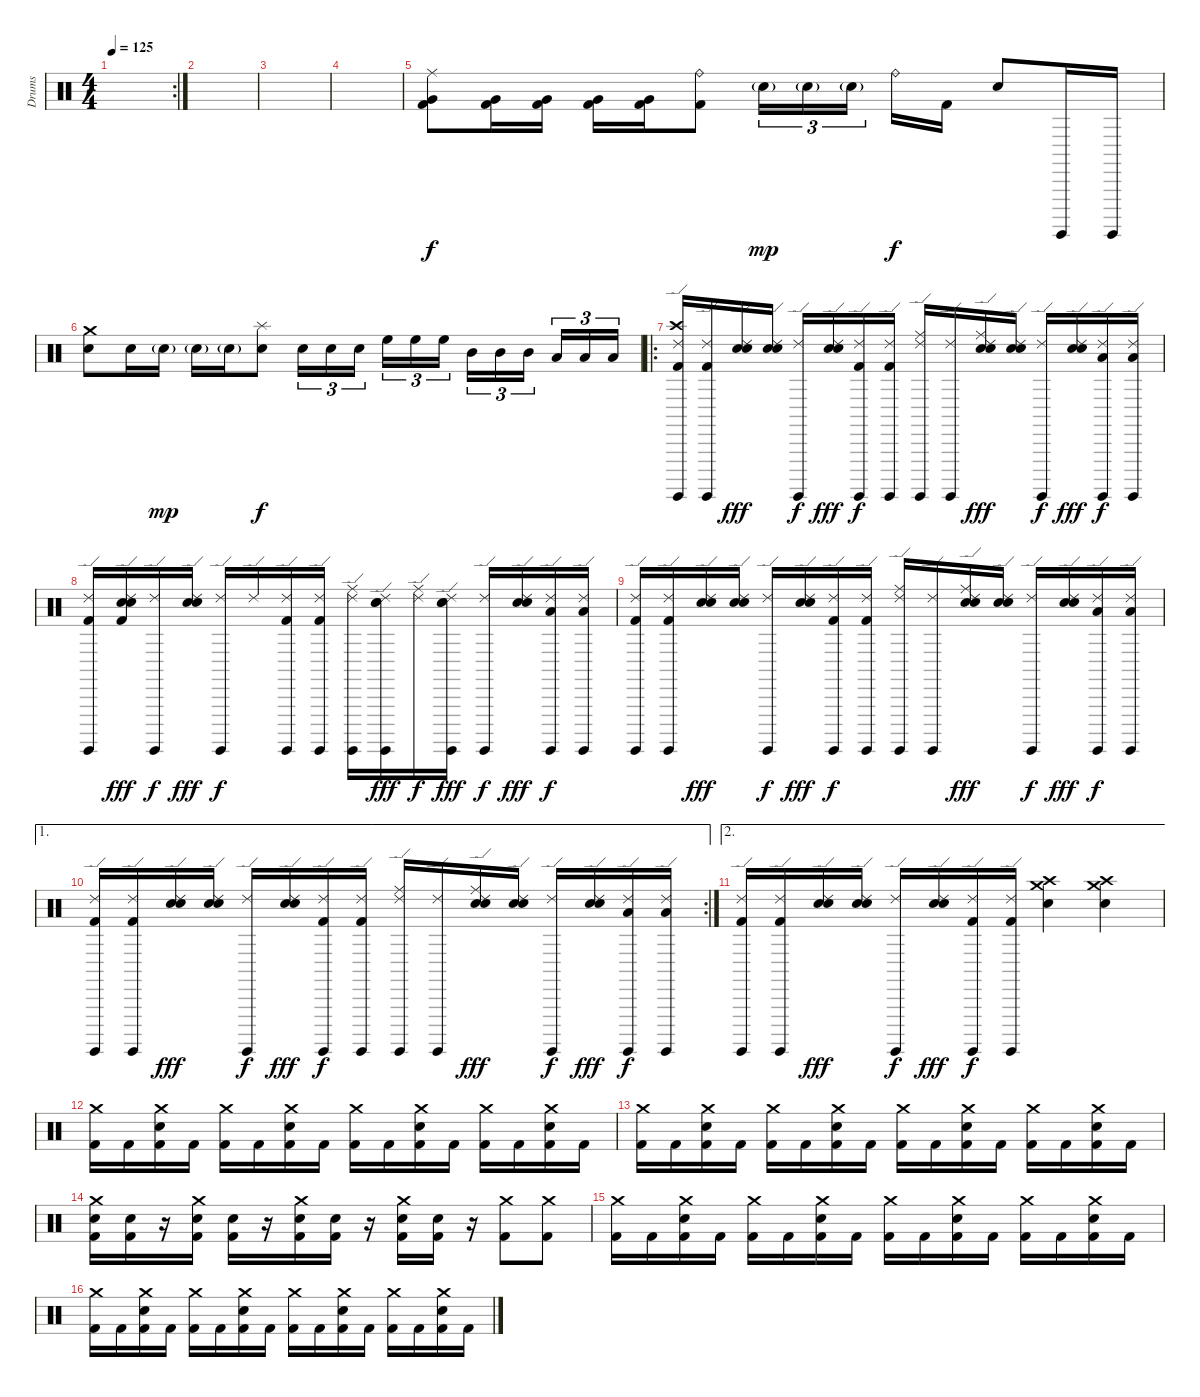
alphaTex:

\track ("Drums" "Drums") {instrument percussion}
\staff {score}
\articulation defaults
\rc 2
\ts (4 4)
\tempo 125
\clef neutral
\ks c
|
|
|
|
("Ride (middle)" "Very Low Tom (hit)" "Kick (hit) 2").8 ("Very Low Tom (hit)" "Kick (hit) 2").16 ("Very Low Tom (hit)" "Kick (hit) 2").16 ("Very Low Tom (hit)" "Kick (hit) 2").16 ("Very Low Tom (hit)" "Kick (hit) 2").16 ("Ride (bell)" "Kick (hit) 2").8 "Electric Snare (hit)"{g}.16{tu (3 2) dy mp} "Electric Snare (hit)"{g}.16{tu (3 2)} "Electric Snare (hit)"{g}.16{tu (3 2)} "Ride (bell)".16{dy f} "Kick (hit) 2".16 "Electric Snare (hit)".8 "Surdo (hit)".16 "Surdo (hit)".16 |
("Crash medium (hit)" "Electric Snare (hit)").8 "Electric Snare (hit)".16 "Electric Snare (hit)"{g}.16{dy mp} "Electric Snare (hit)"{g}.16 "Electric Snare (hit)"{g}.16 ("Splash (hit)" "Electric Snare (hit)").8{dy f} "Electric Snare (hit)".16{tu (3 2)} "Electric Snare (hit)".16{tu (3 2)} "Electric Snare (hit)".16{tu (3 2)} "High Floor Tom (hit)".16{tu (3 2)} "High Floor Tom (hit)".16{tu (3 2)} "High Floor Tom (hit)".16{tu (3 2)} "Mid Tom (hit)".16{tu (3 2)} "Mid Tom (hit)".16{tu (3 2)} "Mid Tom (hit)".16{tu (3 2)} "Low Tom (hit)".16{tu (3 2)} "Low Tom (hit)".16{tu (3 2)} "Low Tom (hit)".16{tu (3 2)} |
\ro
("Crash high (hit)" "Surdo (hit)" "Ride (edge) 2" "Kick (hit) 2").16 ("Surdo (hit)" "Ride (edge) 2" "Kick (hit) 2").16 ("Ride (edge) 2" "Electric Snare (hit)" "Snare (hit) 2").16{dy fff} ("Ride (edge) 2" "Electric Snare (hit)" "Snare (hit) 2").16 ("Surdo (hit)" "Ride (edge) 2").16{dy f} ("Ride (edge) 2" "Electric Snare (hit)" "Snare (hit) 2").16{dy fff} ("Surdo (hit)" "Ride (edge) 2" "Kick (hit) 2").16{dy f} ("Surdo (hit)" "Ride (edge) 2" "Kick (hit) 2").16 ("Surdo (hit)" "Ride (edge) 2" "Ride (middle)").16 ("Surdo (hit)" "Ride (edge) 2").16 ("Ride (edge) 2" "Electric Snare (hit)" "Snare (hit) 2" "Ride (middle)").16{dy fff} ("Ride (edge) 2" "Electric Snare (hit)" "Snare (hit) 2").16 ("Surdo (hit)" "Ride (edge) 2").16{dy f} ("Ride (edge) 2" "Electric Snare (hit)" "Snare (hit) 2").16{dy fff} ("Surdo (hit)" "Ride (edge) 2" "Low Tom (hit)").16{dy f} ("Surdo (hit)" "Ride (edge) 2" "Low Tom (hit)").16 |
("Surdo (hit)" "Ride (edge) 2" "Kick (hit) 2").16 ("Ride (edge) 2" "Electric Snare (hit)" "Snare (hit) 2" "Kick (hit) 2").16{dy fff} ("Surdo (hit)" "Ride (edge) 2").16{dy f} ("Ride (edge) 2" "Electric Snare (hit)" "Snare (hit) 2").16{dy fff} ("Surdo (hit)" "Ride (edge) 2").16{dy f} "Ride (edge) 2".16 ("Surdo (hit)" "Ride (edge) 2" "Kick (hit) 2").16 ("Surdo (hit)" "Ride (edge) 2" "Kick (hit) 2").16 ("Surdo (hit)" "Ride (edge) 2" "Ride (middle)").16 ("Surdo (hit)" "Ride (edge) 2" "Electric Snare (hit)" "Snare (hit) 2").16{dy fff} ("Ride (edge) 2" "Ride (middle)").16{dy f} ("Surdo (hit)" "Ride (edge) 2" "Electric Snare (hit)" "Snare (hit) 2").16{dy fff} ("Surdo (hit)" "Ride (edge) 2").16{dy f} ("Ride (edge) 2" "Electric Snare (hit)" "Snare (hit) 2").16{dy fff} ("Surdo (hit)" "Ride (edge) 2" "Low Tom (hit)").16{dy f} ("Surdo (hit)" "Ride (edge) 2" "Low Tom (hit)").16 |
("Surdo (hit)" "Ride (edge) 2" "Kick (hit) 2").16 ("Surdo (hit)" "Ride (edge) 2" "Kick (hit) 2").16 ("Ride (edge) 2" "Electric Snare (hit)" "Snare (hit) 2").16{dy fff} ("Ride (edge) 2" "Electric Snare (hit)" "Snare (hit) 2").16 ("Surdo (hit)" "Ride (edge) 2").16{dy f} ("Ride (edge) 2" "Electric Snare (hit)" "Snare (hit) 2").16{dy fff} ("Surdo (hit)" "Ride (edge) 2" "Kick (hit) 2").16{dy f} ("Surdo (hit)" "Ride (edge) 2" "Kick (hit) 2").16 ("Surdo (hit)" "Ride (edge) 2" "Ride (middle)").16 ("Surdo (hit)" "Ride (edge) 2").16 ("Ride (edge) 2" "Electric Snare (hit)" "Snare (hit) 2" "Ride (middle)").16{dy fff} ("Ride (edge) 2" "Electric Snare (hit)" "Snare (hit) 2").16 ("Surdo (hit)" "Ride (edge) 2").16{dy f} ("Ride (edge) 2" "Electric Snare (hit)" "Snare (hit) 2").16{dy fff} ("Surdo (hit)" "Ride (edge) 2" "Low Tom (hit)").16{dy f} ("Surdo (hit)" "Ride (edge) 2" "Low Tom (hit)").16 |
\ae 1
\rc 2
("Surdo (hit)" "Ride (edge) 2" "Kick (hit) 2").16 ("Surdo (hit)" "Ride (edge) 2" "Kick (hit) 2").16 ("Ride (edge) 2" "Electric Snare (hit)" "Snare (hit) 2").16{dy fff} ("Ride (edge) 2" "Electric Snare (hit)" "Snare (hit) 2").16 ("Surdo (hit)" "Ride (edge) 2").16{dy f} ("Ride (edge) 2" "Electric Snare (hit)" "Snare (hit) 2").16{dy fff} ("Surdo (hit)" "Ride (edge) 2" "Kick (hit) 2").16{dy f} ("Surdo (hit)" "Ride (edge) 2" "Kick (hit) 2").16 ("Surdo (hit)" "Ride (edge) 2" "Ride (middle)").16 ("Surdo (hit)" "Ride (edge) 2").16 ("Ride (edge) 2" "Electric Snare (hit)" "Snare (hit) 2" "Ride (middle)").16{dy fff} ("Ride (edge) 2" "Electric Snare (hit)" "Snare (hit) 2").16 ("Surdo (hit)" "Ride (edge) 2").16{dy f} ("Ride (edge) 2" "Electric Snare (hit)" "Snare (hit) 2").16{dy fff} ("Surdo (hit)" "Ride (edge) 2" "Low Tom (hit)").16{dy f} ("Surdo (hit)" "Ride (edge) 2" "Low Tom (hit)").16 |
\ae 2
("Surdo (hit)" "Ride (edge) 2" "Kick (hit) 2").16 ("Surdo (hit)" "Ride (edge) 2" "Kick (hit) 2").16 ("Ride (edge) 2" "Electric Snare (hit)" "Snare (hit) 2").16{dy fff} ("Ride (edge) 2" "Electric Snare (hit)" "Snare (hit) 2").16 ("Surdo (hit)" "Ride (edge) 2").16{dy f} ("Ride (edge) 2" "Electric Snare (hit)" "Snare (hit) 2").16{dy fff} ("Surdo (hit)" "Ride (edge) 2" "Kick (hit) 2").16{dy f} ("Surdo (hit)" "Ride (edge) 2" "Kick (hit) 2").16 ("Crash high (hit)" "Crash medium (hit)" "Electric Snare (hit)").4 ("Crash high (hit)" "Crash medium (hit)" "Electric Snare (hit)").4 |
("Crash medium (hit)" "Kick (hit) 2").16 "Kick (hit) 2".16 ("Crash medium (hit)" "Electric Snare (hit)" "Kick (hit) 2").16 "Kick (hit) 2".16 ("Crash medium (hit)" "Kick (hit) 2").16 "Kick (hit) 2".16 ("Crash medium (hit)" "Electric Snare (hit)" "Kick (hit) 2").16 "Kick (hit) 2".16 ("Crash medium (hit)" "Kick (hit) 2").16 "Kick (hit) 2".16 ("Crash medium (hit)" "Electric Snare (hit)" "Kick (hit) 2").16 "Kick (hit) 2".16 ("Crash medium (hit)" "Kick (hit) 2").16 "Kick (hit) 2".16 ("Crash medium (hit)" "Electric Snare (hit)" "Kick (hit) 2").16 "Kick (hit) 2".16 |
("Crash medium (hit)" "Kick (hit) 2").16 "Kick (hit) 2".16 ("Crash medium (hit)" "Electric Snare (hit)" "Kick (hit) 2").16 "Kick (hit) 2".16 ("Crash medium (hit)" "Kick (hit) 2").16 "Kick (hit) 2".16 ("Crash medium (hit)" "Electric Snare (hit)" "Kick (hit) 2").16 "Kick (hit) 2".16 ("Crash medium (hit)" "Kick (hit) 2").16 "Kick (hit) 2".16 ("Crash medium (hit)" "Electric Snare (hit)" "Kick (hit) 2").16 "Kick (hit) 2".16 ("Crash medium (hit)" "Kick (hit) 2").16 "Kick (hit) 2".16 ("Crash medium (hit)" "Electric Snare (hit)" "Kick (hit) 2").16 "Kick (hit) 2".16 |
("Crash medium (hit)" "Electric Snare (hit)" "Kick (hit) 2").16 ("Electric Snare (hit)" "Kick (hit) 2").16 r.16 ("Crash medium (hit)" "Electric Snare (hit)" "Kick (hit) 2").16 ("Electric Snare (hit)" "Kick (hit) 2").16 r.16 ("Crash medium (hit)" "Electric Snare (hit)" "Kick (hit) 2").16 ("Electric Snare (hit)" "Kick (hit) 2").16 r.16 ("Crash medium (hit)" "Electric Snare (hit)" "Kick (hit) 2").16 ("Electric Snare (hit)" "Kick (hit) 2").16 r.16 ("Crash medium (hit)" "Kick (hit) 2").8 ("Crash medium (hit)" "Kick (hit) 2").8 |
("Crash medium (hit)" "Kick (hit) 2").16 "Kick (hit) 2".16 ("Crash medium (hit)" "Electric Snare (hit)" "Kick (hit) 2").16 "Kick (hit) 2".16 ("Crash medium (hit)" "Kick (hit) 2").16 "Kick (hit) 2".16 ("Crash medium (hit)" "Electric Snare (hit)" "Kick (hit) 2").16 "Kick (hit) 2".16 ("Crash medium (hit)" "Kick (hit) 2").16 "Kick (hit) 2".16 ("Crash medium (hit)" "Electric Snare (hit)" "Kick (hit) 2").16 "Kick (hit) 2".16 ("Crash medium (hit)" "Kick (hit) 2").16 "Kick (hit) 2".16 ("Crash medium (hit)" "Electric Snare (hit)" "Kick (hit) 2").16 "Kick (hit) 2".16 |
("Crash medium (hit)" "Kick (hit) 2").16 "Kick (hit) 2".16 ("Crash medium (hit)" "Electric Snare (hit)" "Kick (hit) 2").16 "Kick (hit) 2".16 ("Crash medium (hit)" "Kick (hit) 2").16 "Kick (hit) 2".16 ("Crash medium (hit)" "Electric Snare (hit)" "Kick (hit) 2").16 "Kick (hit) 2".16 ("Crash medium (hit)" "Kick (hit) 2").16 "Kick (hit) 2".16 ("Crash medium (hit)" "Electric Snare (hit)" "Kick (hit) 2").16 "Kick (hit) 2".16 ("Crash medium (hit)" "Kick (hit) 2").16 "Kick (hit) 2".16 ("Crash medium (hit)" "Electric Snare (hit)" "Kick (hit) 2").16 "Kick (hit) 2".16
